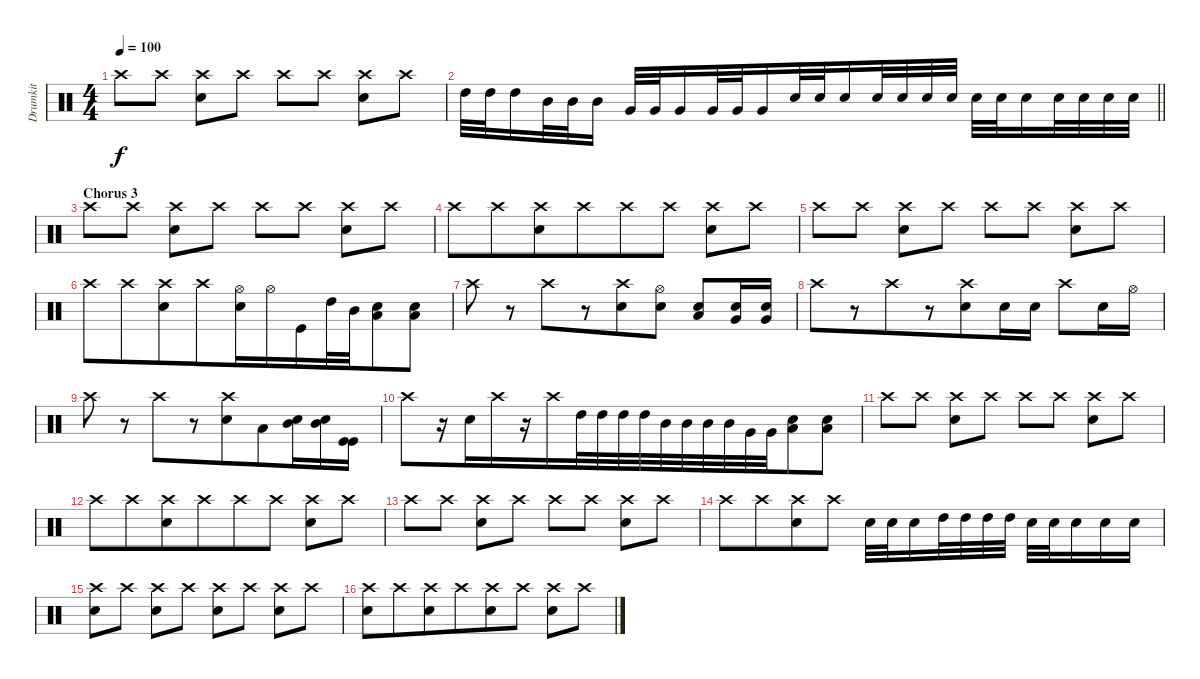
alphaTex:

\track ("Drumkit" "Drumkit") {instrument percussion}
\staff {score}
\articulation defaults
\ts (4 4)
\tempo 100
\clef neutral
\ks c "Crash high (hit)".8{dy f} "Crash high (hit)".8
("Crash high (hit)" "Electric Snare (hit)").8{beam merge} "Crash high (hit)".8 "Crash high (hit)".8 "Crash high (hit)".8 ("Crash high (hit)" "Electric Snare (hit)").8{beam merge} "Crash high (hit)".8 |
\barLineRight lightlight "High Tom (hit)".32{beam merge} "High Tom (hit)".32{beam merge} "High Tom (hit)".16{beam merge} "Mid Tom (hit)".32{beam merge} "Mid Tom (hit)".32 "Mid Tom (hit)".16 "Very Low Tom (hit)".32 "Very Low Tom (hit)".32{beam merge} "Very Low Tom (hit)".16{beam merge} "Very Low Tom (hit)".32 "Very Low Tom (hit)".32{beam merge} "Very Low Tom (hit)".16{beam merge} "Electric Snare (hit)".32 "Electric Snare (hit)".32 "Electric Snare (hit)".16 "Electric Snare (hit)".32 "Electric Snare (hit)".32{beam merge} "Electric Snare (hit)".32{beam merge} "Electric Snare (hit)".32 "Electric Snare (hit)".32 "Electric Snare (hit)".32{beam merge} "Electric Snare (hit)".16 "Electric Snare (hit)".32 "Electric Snare (hit)".32 "Electric Snare (hit)".32 "Electric Snare (hit)".32
|
\section ("" "Chorus 3")
"Crash high (hit)".8 "Crash high (hit)".8 ("Crash high (hit)" "Electric Snare (hit)").8{beam merge} "Crash high (hit)".8 "Crash high (hit)".8 "Crash high (hit)".8 ("Crash high (hit)" "Electric Snare (hit)").8{beam merge} "Crash high (hit)".8 |
"Crash high (hit)".8{beam merge} "Crash high (hit)".8{beam merge} ("Crash high (hit)" "Electric Snare (hit)").8{beam merge} "Crash high (hit)".8{beam merge} "Crash high (hit)".8 "Crash high (hit)".8 ("Crash high (hit)" "Electric Snare (hit)").8 "Crash high (hit)".8 |
"Crash high (hit)".8 "Crash high (hit)".8 ("Crash high (hit)" "Electric Snare (hit)").8{beam merge} "Crash high (hit)".8 "Crash high (hit)".8 "Crash high (hit)".8 ("Crash high (hit)" "Electric Snare (hit)").8{beam merge} "Crash high (hit)".8 |
"Crash high (hit)".8{beam merge} "Crash high (hit)".8{beam merge} ("Crash high (hit)" "Electric Snare (hit)").8{beam merge} "Crash high (hit)".8{beam merge} ("Hi-Hat (open)" "Electric Snare (hit)").16 "Hi-Hat (open)".16{beam merge} "Kick (hit)".16{beam merge} "High Tom (hit)".32{beam merge} "Mid Tom (hit)".32{beam merge} ("Low Floor Tom (hit)" "Electric Snare (hit)").8{beam merge} ("Low Floor Tom (hit)" "Electric Snare (hit)").8 |
"Crash high (hit)".8 r.8 "Crash high (hit)".8{beam merge} r.8 ("Crash high (hit)" "Electric Snare (hit)").8 ("Hi-Hat (open)" "Electric Snare (hit)").8 ("Low Floor Tom (hit)" "Electric Snare (hit)").8{beam merge} ("Very Low Tom (hit)" "Electric Snare (hit)").16{beam merge} ("Very Low Tom (hit)" "Electric Snare (hit)").16 |
"Crash high (hit)".8{beam merge} r.8{beam merge} "Crash high (hit)".8{beam merge} r.8 ("Crash high (hit)" "Electric Snare (hit)").8 "Electric Snare (hit)".16 "Electric Snare (hit)".16 "Crash high (hit)".8 "Electric Snare (hit)".16{beam merge} "Hi-Hat (open)".16 |
"Crash high (hit)".8 r.8 "Crash high (hit)".8{beam merge} r.8 ("Crash high (hit)" "Electric Snare (hit)").8 "Low Floor Tom (hit)".8{beam merge} ("Mid Tom (hit)" "Electric Snare (hit)").16{beam merge} ("Mid Tom (hit)" "Electric Snare (hit)").16 ("Kick (hit)" "Kick (hit)").16 |
"Crash high (hit)".8 r.16{beam merge} "Electric Snare (hit)".16{beam merge} "Crash high (hit)".16{beam merge} r.16{beam merge} "Crash high (hit)".16 "High Tom (hit)".32{beam merge} "High Tom (hit)".32{beam merge} "High Tom (hit)".32 "High Tom (hit)".32{beam merge} "Mid Tom (hit)".32{beam merge} "Mid Tom (hit)".32 "Mid Tom (hit)".32 "Mid Tom (hit)".32 "Very Low Tom (hit)".32 "Very Low Tom (hit)".32{beam merge} ("Low Floor Tom (hit)" "Electric Snare (hit)").8 ("Low Floor Tom (hit)" "Electric Snare (hit)").8 |
"Crash high (hit)".8 "Crash high (hit)".8 ("Crash high (hit)" "Electric Snare (hit)").8{beam merge} "Crash high (hit)".8 "Crash high (hit)".8 "Crash high (hit)".8 ("Crash high (hit)" "Electric Snare (hit)").8{beam merge} "Crash high (hit)".8 |
"Crash high (hit)".8{beam merge} "Crash high (hit)".8{beam merge} ("Crash high (hit)" "Electric Snare (hit)").8{beam merge} "Crash high (hit)".8{beam merge} "Crash high (hit)".8 "Crash high (hit)".8 ("Crash high (hit)" "Electric Snare (hit)").8 "Crash high (hit)".8 |
"Crash high (hit)".8 "Crash high (hit)".8 ("Crash high (hit)" "Electric Snare (hit)").8{beam merge} "Crash high (hit)".8 "Crash high (hit)".8 "Crash high (hit)".8 ("Crash high (hit)" "Electric Snare (hit)").8{beam merge} "Crash high (hit)".8 |
"Crash high (hit)".8{beam merge} "Crash high (hit)".8{beam merge} ("Crash high (hit)" "Electric Snare (hit)").8{beam merge} "Crash high (hit)".8 "Electric Snare (hit)".32 "Electric Snare (hit)".32 "Electric Snare (hit)".16{beam merge} "High Tom (hit)".32 "High Tom (hit)".32{beam merge} "High Tom (hit)".32{beam merge} "High Tom (hit)".32 "Electric Snare (hit)".32{beam merge} "Electric Snare (hit)".32{beam merge} "Electric Snare (hit)".16 "Electric Snare (hit)".16{beam merge} "Electric Snare (hit)".16 |
("Crash high (hit)" "Electric Snare (hit)").8 "Crash high (hit)".8 ("Crash high (hit)" "Electric Snare (hit)").8{beam merge} "Crash high (hit)".8 ("Crash high (hit)" "Electric Snare (hit)").8 "Crash high (hit)".8 ("Crash high (hit)" "Electric Snare (hit)").8{beam merge} "Crash high (hit)".8 |
("Crash high (hit)" "Electric Snare (hit)").8{beam merge} "Crash high (hit)".8{beam merge} ("Crash high (hit)" "Electric Snare (hit)").8{beam merge} "Crash high (hit)".8{beam merge} ("Crash high (hit)" "Electric Snare (hit)").8 "Crash high (hit)".8 ("Crash high (hit)" "Electric Snare (hit)").8 "Crash high (hit)".8
